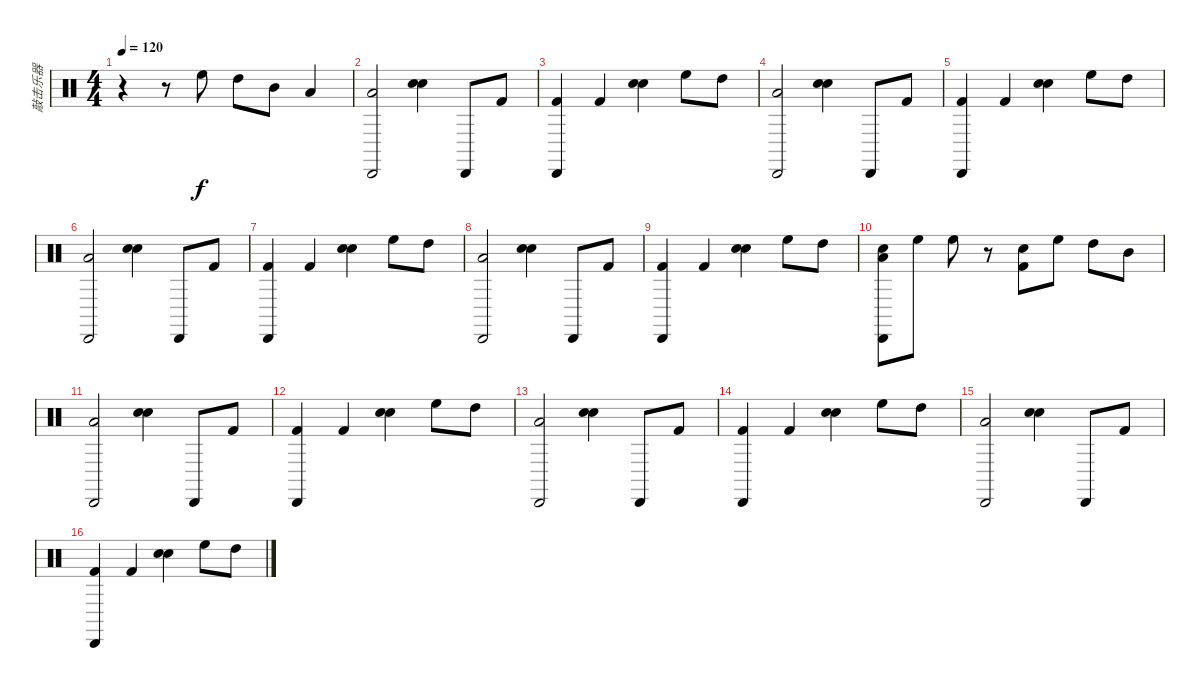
\track ("敲击乐器" "敲击乐器") {instrument percussion}
\staff {score}
\articulation defaults
\ts (4 4)
\tempo 120
\clef neutral
\ks c
r.4{dy fff} r.8 "High Floor Tom (hit)".8{dy f} "High Tom (hit)".8 "Mid Tom (hit)".8 "Low Tom (hit)".4 |
("Low Tom (hit)" "Cabasa (hit)").2 ("Electric Snare (hit)" "Hand Clap (hit)").4 "Cabasa (hit)".8 "Kick (hit) 2".8 |
("Kick (hit) 2" "Cabasa (hit)").4 "Kick (hit) 2".4 ("Electric Snare (hit)" "Hand Clap (hit)").4 "High Floor Tom (hit)".8 "High Tom (hit)".8 |
("Low Tom (hit)" "Cabasa (hit)").2 ("Electric Snare (hit)" "Hand Clap (hit)").4 "Cabasa (hit)".8 "Kick (hit) 2".8 |
("Kick (hit) 2" "Cabasa (hit)").4 "Kick (hit) 2".4 ("Electric Snare (hit)" "Hand Clap (hit)").4 "High Floor Tom (hit)".8 "High Tom (hit)".8 |
("Low Tom (hit)" "Cabasa (hit)").2 ("Electric Snare (hit)" "Hand Clap (hit)").4 "Cabasa (hit)".8 "Kick (hit) 2".8 |
("Kick (hit) 2" "Cabasa (hit)").4 "Kick (hit) 2".4 ("Electric Snare (hit)" "Hand Clap (hit)").4 "High Floor Tom (hit)".8 "High Tom (hit)".8 |
("Low Tom (hit)" "Cabasa (hit)").2 ("Electric Snare (hit)" "Hand Clap (hit)").4 "Cabasa (hit)".8 "Kick (hit) 2".8 |
("Kick (hit) 2" "Cabasa (hit)").4 "Kick (hit) 2".4 ("Electric Snare (hit)" "Hand Clap (hit)").4 "High Floor Tom (hit)".8 "High Tom (hit)".8 |
("Electric Snare (hit)" "Low Tom (hit)" "Cabasa (hit)").8 "High Floor Tom (hit)".8 "High Floor Tom (hit)".8 r.8 ("Kick (hit) 2" "Electric Snare (hit)").8 "High Floor Tom (hit)".8 "High Tom (hit)".8 "Mid Tom (hit)".8 |
("Low Tom (hit)" "Cabasa (hit)").2 ("Electric Snare (hit)" "Hand Clap (hit)").4 "Cabasa (hit)".8 "Kick (hit) 2".8 |
("Kick (hit) 2" "Cabasa (hit)").4 "Kick (hit) 2".4 ("Electric Snare (hit)" "Hand Clap (hit)").4 "High Floor Tom (hit)".8 "High Tom (hit)".8 |
("Low Tom (hit)" "Cabasa (hit)").2 ("Electric Snare (hit)" "Hand Clap (hit)").4 "Cabasa (hit)".8 "Kick (hit) 2".8 |
("Kick (hit) 2" "Cabasa (hit)").4 "Kick (hit) 2".4 ("Electric Snare (hit)" "Hand Clap (hit)").4 "High Floor Tom (hit)".8 "High Tom (hit)".8 |
("Low Tom (hit)" "Cabasa (hit)").2 ("Electric Snare (hit)" "Hand Clap (hit)").4 "Cabasa (hit)".8 "Kick (hit) 2".8 |
("Kick (hit) 2" "Cabasa (hit)").4 "Kick (hit) 2".4 ("Electric Snare (hit)" "Hand Clap (hit)").4 "High Floor Tom (hit)".8 "High Tom (hit)".8
